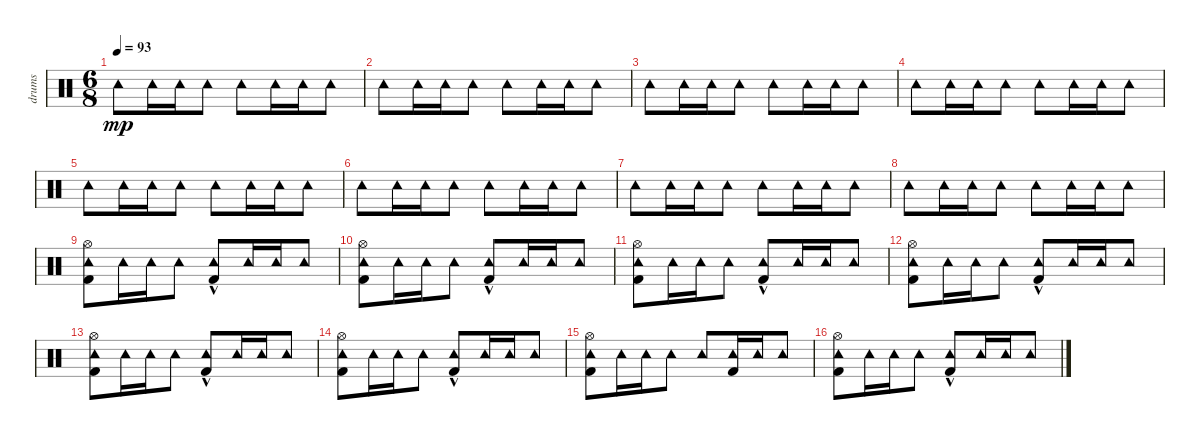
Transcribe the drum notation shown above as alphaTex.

\track ("drums" "drums") {instrument percussion}
\staff {score}
\articulation defaults
\ts (6 8)
\tempo 93
\clef neutral
\ks c "Tambourine (hit)".8{dy mp} "Tambourine (hit)".16 "Tambourine (hit)".16 "Tambourine (hit)".8 "Tambourine (hit)".8 "Tambourine (hit)".16 "Tambourine (hit)".16 "Tambourine (hit)".8
|
"Tambourine (hit)".8 "Tambourine (hit)".16 "Tambourine (hit)".16 "Tambourine (hit)".8 "Tambourine (hit)".8 "Tambourine (hit)".16 "Tambourine (hit)".16 "Tambourine (hit)".8 |
"Tambourine (hit)".8 "Tambourine (hit)".16 "Tambourine (hit)".16 "Tambourine (hit)".8 "Tambourine (hit)".8 "Tambourine (hit)".16 "Tambourine (hit)".16 "Tambourine (hit)".8 |
"Tambourine (hit)".8 "Tambourine (hit)".16 "Tambourine (hit)".16 "Tambourine (hit)".8 "Tambourine (hit)".8 "Tambourine (hit)".16 "Tambourine (hit)".16 "Tambourine (hit)".8 |
"Tambourine (hit)".8 "Tambourine (hit)".16 "Tambourine (hit)".16 "Tambourine (hit)".8 "Tambourine (hit)".8 "Tambourine (hit)".16 "Tambourine (hit)".16 "Tambourine (hit)".8 |
"Tambourine (hit)".8 "Tambourine (hit)".16 "Tambourine (hit)".16 "Tambourine (hit)".8 "Tambourine (hit)".8 "Tambourine (hit)".16 "Tambourine (hit)".16 "Tambourine (hit)".8 |
"Tambourine (hit)".8 "Tambourine (hit)".16 "Tambourine (hit)".16 "Tambourine (hit)".8 "Tambourine (hit)".8 "Tambourine (hit)".16 "Tambourine (hit)".16 "Tambourine (hit)".8 |
"Tambourine (hit)".8 "Tambourine (hit)".16 "Tambourine (hit)".16 "Tambourine (hit)".8 "Tambourine (hit)".8 "Tambourine (hit)".16 "Tambourine (hit)".16 "Tambourine (hit)".8 |
("Tambourine (hit)" "Kick (hit) 2" "Hi-Hat (open)").8 "Tambourine (hit)".16 "Tambourine (hit)".16 "Tambourine (hit)".8 ("Tambourine (hit)" "Kick (hit) 2"{hac}).8 "Tambourine (hit)".16 "Tambourine (hit)".16 "Tambourine (hit)".8 |
("Tambourine (hit)" "Kick (hit) 2" "Hi-Hat (open)").8 "Tambourine (hit)".16 "Tambourine (hit)".16 "Tambourine (hit)".8 ("Tambourine (hit)" "Kick (hit) 2"{hac}).8 "Tambourine (hit)".16 "Tambourine (hit)".16 "Tambourine (hit)".8 |
("Tambourine (hit)" "Kick (hit) 2" "Hi-Hat (open)").8 "Tambourine (hit)".16 "Tambourine (hit)".16 "Tambourine (hit)".8 ("Tambourine (hit)" "Kick (hit) 2"{hac}).8 "Tambourine (hit)".16 "Tambourine (hit)".16 "Tambourine (hit)".8 |
("Tambourine (hit)" "Kick (hit) 2" "Hi-Hat (open)").8 "Tambourine (hit)".16 "Tambourine (hit)".16 "Tambourine (hit)".8 ("Tambourine (hit)" "Kick (hit) 2"{hac}).8 "Tambourine (hit)".16 "Tambourine (hit)".16 "Tambourine (hit)".8 |
("Tambourine (hit)" "Kick (hit) 2" "Hi-Hat (open)").8 "Tambourine (hit)".16 "Tambourine (hit)".16 "Tambourine (hit)".8 ("Tambourine (hit)" "Kick (hit) 2"{hac}).8 "Tambourine (hit)".16 "Tambourine (hit)".16 "Tambourine (hit)".8 |
("Tambourine (hit)" "Kick (hit) 2" "Hi-Hat (open)").8 "Tambourine (hit)".16 "Tambourine (hit)".16 "Tambourine (hit)".8 ("Tambourine (hit)" "Kick (hit) 2"{hac}).8 "Tambourine (hit)".16 "Tambourine (hit)".16 "Tambourine (hit)".8 |
("Tambourine (hit)" "Kick (hit) 2" "Hi-Hat (open)").8 "Tambourine (hit)".16 "Tambourine (hit)".16 "Tambourine (hit)".8 "Tambourine (hit)".8 ("Tambourine (hit)" "Kick (hit) 2").16 "Tambourine (hit)".16 "Tambourine (hit)".8 |
("Tambourine (hit)" "Kick (hit) 2" "Hi-Hat (open)").8 "Tambourine (hit)".16 "Tambourine (hit)".16 "Tambourine (hit)".8 ("Tambourine (hit)" "Kick (hit) 2"{hac}).8 "Tambourine (hit)".16 "Tambourine (hit)".16 "Tambourine (hit)".8
